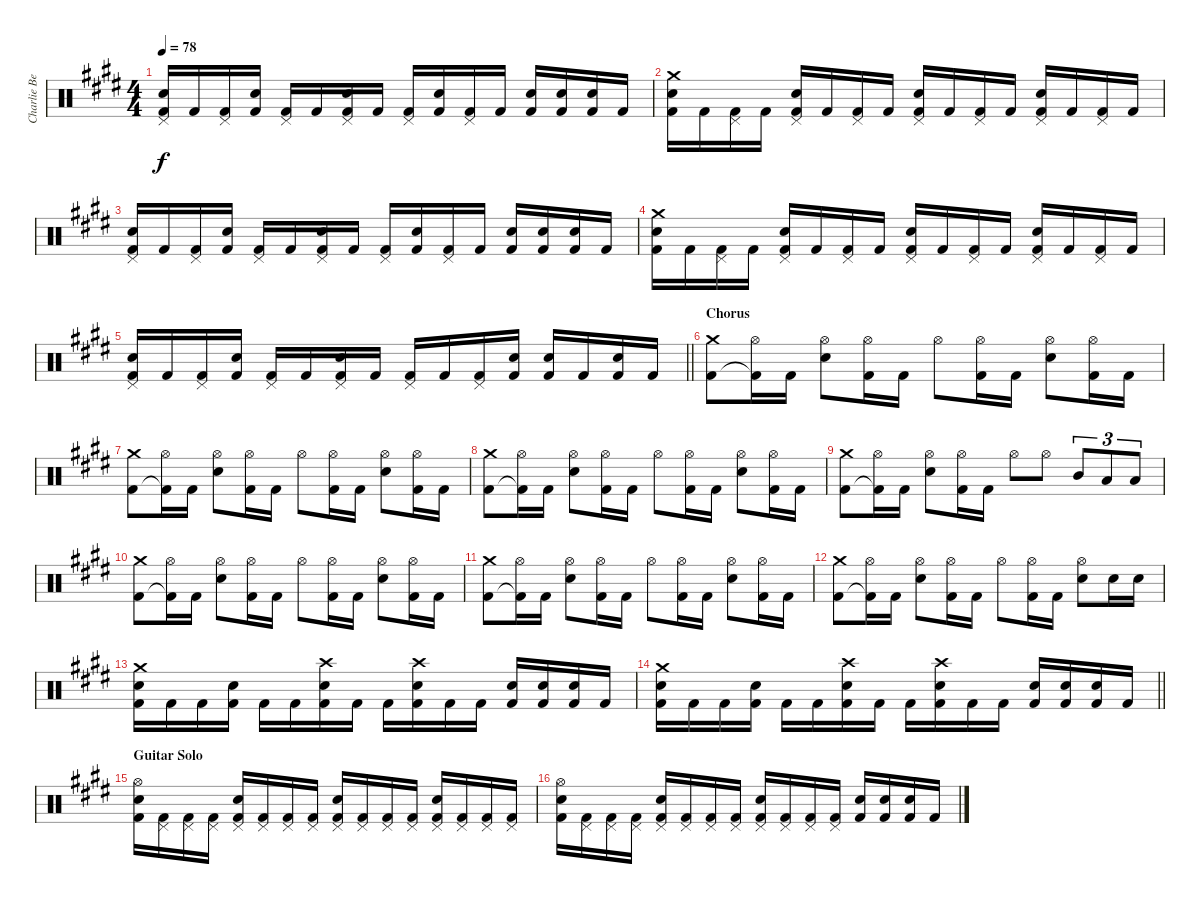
\track ("Charlie Benate " "Charlie Be") {instrument percussion}
\staff {score}
\articulation defaults
\ts (4 4)
\tempo 78
\clef neutral
\ks e
("Pedal Hi-Hat (hit)" "Snare (hit) 2" "Kick (hit) 2").16{dy f} "Kick (hit) 2".16 ("Pedal Hi-Hat (hit)" "Kick (hit) 2").16 ("Snare (hit) 2" "Kick (hit) 2").16 ("Pedal Hi-Hat (hit)" "Kick (hit) 2").16 "Kick (hit) 2".16 ("Pedal Hi-Hat (hit)" "Snare (hit) 2" "Kick (hit) 2").16 "Kick (hit) 2".16 ("Pedal Hi-Hat (hit)" "Kick (hit) 2").16 ("Snare (hit) 2" "Kick (hit) 2").16 ("Pedal Hi-Hat (hit)" "Kick (hit) 2").16 "Kick (hit) 2".16 ("Snare (hit) 2" "Kick (hit) 2").16 ("Snare (hit) 2" "Kick (hit) 2").16 ("Snare (hit) 2" "Kick (hit) 2").16 "Kick (hit) 2".16 |
("Crash medium (hit)" "Snare (hit) 2" "Kick (hit) 2").16 "Kick (hit) 2".16 ("Pedal Hi-Hat (hit)" "Kick (hit) 2").16 "Kick (hit) 2".16 ("Pedal Hi-Hat (hit)" "Snare (hit) 2" "Kick (hit) 2").16 "Kick (hit) 2".16 ("Pedal Hi-Hat (hit)" "Kick (hit) 2").16 "Kick (hit) 2".16 ("Pedal Hi-Hat (hit)" "Snare (hit) 2" "Kick (hit) 2").16 "Kick (hit) 2".16 ("Pedal Hi-Hat (hit)" "Kick (hit) 2").16 "Kick (hit) 2".16 ("Pedal Hi-Hat (hit)" "Snare (hit) 2" "Kick (hit) 2").16 "Kick (hit) 2".16 ("Pedal Hi-Hat (hit)" "Kick (hit) 2").16 "Kick (hit) 2".16 |
("Pedal Hi-Hat (hit)" "Snare (hit) 2" "Kick (hit) 2").16 "Kick (hit) 2".16 ("Pedal Hi-Hat (hit)" "Kick (hit) 2").16 ("Snare (hit) 2" "Kick (hit) 2").16 ("Pedal Hi-Hat (hit)" "Kick (hit) 2").16 "Kick (hit) 2".16 ("Pedal Hi-Hat (hit)" "Snare (hit) 2" "Kick (hit) 2").16 "Kick (hit) 2".16 ("Pedal Hi-Hat (hit)" "Kick (hit) 2").16 ("Snare (hit) 2" "Kick (hit) 2").16 ("Pedal Hi-Hat (hit)" "Kick (hit) 2").16 "Kick (hit) 2".16 ("Snare (hit) 2" "Kick (hit) 2").16 ("Snare (hit) 2" "Kick (hit) 2").16 ("Snare (hit) 2" "Kick (hit) 2").16 "Kick (hit) 2".16 |
("Crash medium (hit)" "Snare (hit) 2" "Kick (hit) 2").16 "Kick (hit) 2".16 ("Pedal Hi-Hat (hit)" "Kick (hit) 2").16 "Kick (hit) 2".16 ("Pedal Hi-Hat (hit)" "Snare (hit) 2" "Kick (hit) 2").16 "Kick (hit) 2".16 ("Pedal Hi-Hat (hit)" "Kick (hit) 2").16 "Kick (hit) 2".16 ("Pedal Hi-Hat (hit)" "Snare (hit) 2" "Kick (hit) 2").16 "Kick (hit) 2".16 ("Pedal Hi-Hat (hit)" "Kick (hit) 2").16 "Kick (hit) 2".16 ("Pedal Hi-Hat (hit)" "Snare (hit) 2" "Kick (hit) 2").16 "Kick (hit) 2".16 ("Pedal Hi-Hat (hit)" "Kick (hit) 2").16 "Kick (hit) 2".16 |
\barLineRight lightlight
("Pedal Hi-Hat (hit)" "Snare (hit) 2" "Kick (hit) 2").16 "Kick (hit) 2".16 ("Pedal Hi-Hat (hit)" "Kick (hit) 2").16 ("Snare (hit) 2" "Kick (hit) 2").16 ("Pedal Hi-Hat (hit)" "Kick (hit) 2").16 "Kick (hit) 2".16 ("Pedal Hi-Hat (hit)" "Snare (hit) 2" "Kick (hit) 2").16 "Kick (hit) 2".16 ("Pedal Hi-Hat (hit)" "Kick (hit) 2").16 "Kick (hit) 2".16 ("Pedal Hi-Hat (hit)" "Kick (hit) 2").16 ("Snare (hit) 2" "Kick (hit) 2").16 ("Snare (hit) 2" "Kick (hit) 2").16 "Kick (hit) 2".16 ("Snare (hit) 2" "Kick (hit) 2").16 "Kick (hit) 2".16 |
\section ("" "Chorus")
("Crash medium (hit)" "Kick (hit) 2").8 ("Hi-Hat (open)" "Kick (hit) 2"{t}).16 "Kick (hit) 2".16 ("Hi-Hat (open)" "Snare (hit) 2").8 ("Hi-Hat (open)" "Kick (hit) 2").16 "Kick (hit) 2".16 "Hi-Hat (open)".8 ("Hi-Hat (open)" "Kick (hit) 2").16 "Kick (hit) 2".16 ("Hi-Hat (open)" "Snare (hit) 2").8 ("Hi-Hat (open)" "Kick (hit) 2").16 "Kick (hit) 2".16 |
("Crash medium (hit)" "Kick (hit) 2").8 ("Hi-Hat (open)" "Kick (hit) 2"{t}).16 "Kick (hit) 2".16 ("Hi-Hat (open)" "Snare (hit) 2").8 ("Hi-Hat (open)" "Kick (hit) 2").16 "Kick (hit) 2".16 "Hi-Hat (open)".8 ("Hi-Hat (open)" "Kick (hit) 2").16 "Kick (hit) 2".16 ("Hi-Hat (open)" "Snare (hit) 2").8 ("Hi-Hat (open)" "Kick (hit) 2").16 "Kick (hit) 2".16 |
("Crash medium (hit)" "Kick (hit) 2").8 ("Hi-Hat (open)" "Kick (hit) 2"{t}).16 "Kick (hit) 2".16 ("Hi-Hat (open)" "Snare (hit) 2").8 ("Hi-Hat (open)" "Kick (hit) 2").16 "Kick (hit) 2".16 "Hi-Hat (open)".8 ("Hi-Hat (open)" "Kick (hit) 2").16 "Kick (hit) 2".16 ("Hi-Hat (open)" "Snare (hit) 2").8 ("Hi-Hat (open)" "Kick (hit) 2").16 "Kick (hit) 2".16 |
("Crash medium (hit)" "Kick (hit) 2").8 ("Hi-Hat (open)" "Kick (hit) 2"{t}).16 "Kick (hit) 2".16 ("Hi-Hat (open)" "Snare (hit) 2").8 ("Hi-Hat (open)" "Kick (hit) 2").16 "Kick (hit) 2".16 "Hi-Hat (open)".8 "Hi-Hat (open)".8 "Mid Tom (hit)".8{tu (3 2)} "Low Tom (hit)".8{tu (3 2)} "Low Tom (hit)".8{tu (3 2)} |
("Crash medium (hit)" "Kick (hit) 2").8 ("Hi-Hat (open)" "Kick (hit) 2"{t}).16 "Kick (hit) 2".16 ("Hi-Hat (open)" "Snare (hit) 2").8 ("Hi-Hat (open)" "Kick (hit) 2").16 "Kick (hit) 2".16 "Hi-Hat (open)".8 ("Hi-Hat (open)" "Kick (hit) 2").16 "Kick (hit) 2".16 ("Hi-Hat (open)" "Snare (hit) 2").8 ("Hi-Hat (open)" "Kick (hit) 2").16 "Kick (hit) 2".16 |
("Crash medium (hit)" "Kick (hit) 2").8 ("Hi-Hat (open)" "Kick (hit) 2"{t}).16 "Kick (hit) 2".16 ("Hi-Hat (open)" "Snare (hit) 2").8 ("Hi-Hat (open)" "Kick (hit) 2").16 "Kick (hit) 2".16 "Hi-Hat (open)".8 ("Hi-Hat (open)" "Kick (hit) 2").16 "Kick (hit) 2".16 ("Hi-Hat (open)" "Snare (hit) 2").8 ("Hi-Hat (open)" "Kick (hit) 2").16 "Kick (hit) 2".16 |
("Crash medium (hit)" "Kick (hit) 2").8 ("Hi-Hat (open)" "Kick (hit) 2"{t}).16 "Kick (hit) 2".16 ("Hi-Hat (open)" "Snare (hit) 2").8 ("Hi-Hat (open)" "Kick (hit) 2").16 "Kick (hit) 2".16 "Hi-Hat (open)".8 ("Hi-Hat (open)" "Kick (hit) 2").16 "Kick (hit) 2".16 ("Hi-Hat (open)" "Snare (hit) 2").8 "Snare (hit) 2".16 "Snare (hit) 2".16 |
("Crash medium (hit)" "Snare (hit) 2" "Kick (hit) 2").16 "Kick (hit) 2".16 "Kick (hit) 2".16 ("Snare (hit) 2" "Kick (hit) 2").16 "Kick (hit) 2".16 "Kick (hit) 2".16 ("Crash high (hit)" "Snare (hit) 2" "Kick (hit) 2").16 "Kick (hit) 2".16 "Kick (hit) 2".16 ("Crash high (hit)" "Snare (hit) 2" "Kick (hit) 2").16 "Kick (hit) 2".16 "Kick (hit) 2".16 ("Snare (hit) 2" "Kick (hit) 2").16 ("Snare (hit) 2" "Kick (hit) 2").16 ("Snare (hit) 2" "Kick (hit) 2").16 "Kick (hit) 2".16 |
\barLineRight lightlight
("Crash medium (hit)" "Snare (hit) 2" "Kick (hit) 2").16 "Kick (hit) 2".16 "Kick (hit) 2".16 ("Snare (hit) 2" "Kick (hit) 2").16 "Kick (hit) 2".16 "Kick (hit) 2".16 ("Crash high (hit)" "Snare (hit) 2" "Kick (hit) 2").16 "Kick (hit) 2".16 "Kick (hit) 2".16 ("Crash high (hit)" "Snare (hit) 2" "Kick (hit) 2").16 "Kick (hit) 2".16 "Kick (hit) 2".16 ("Snare (hit) 2" "Kick (hit) 2").16 ("Snare (hit) 2" "Kick (hit) 2").16 ("Snare (hit) 2" "Kick (hit) 2").16 "Kick (hit) 2".16 |
\section ("" "Guitar Solo")
("Hi-Hat (open)" "Snare (hit) 2" "Kick (hit) 2").16 ("Pedal Hi-Hat (hit)" "Kick (hit) 2").16 ("Pedal Hi-Hat (hit)" "Kick (hit) 2").16 ("Pedal Hi-Hat (hit)" "Kick (hit) 2").16 ("Pedal Hi-Hat (hit)" "Snare (hit) 2" "Kick (hit) 2").16 ("Pedal Hi-Hat (hit)" "Kick (hit) 2").16 ("Pedal Hi-Hat (hit)" "Kick (hit) 2").16 ("Pedal Hi-Hat (hit)" "Kick (hit) 2").16 ("Pedal Hi-Hat (hit)" "Snare (hit) 2" "Kick (hit) 2").16 ("Pedal Hi-Hat (hit)" "Kick (hit) 2").16 ("Pedal Hi-Hat (hit)" "Kick (hit) 2").16 ("Pedal Hi-Hat (hit)" "Kick (hit) 2").16 ("Pedal Hi-Hat (hit)" "Snare (hit) 2" "Kick (hit) 2").16 ("Pedal Hi-Hat (hit)" "Kick (hit) 2").16 ("Pedal Hi-Hat (hit)" "Kick (hit) 2").16 ("Pedal Hi-Hat (hit)" "Kick (hit) 2").16 |
("Hi-Hat (open)" "Snare (hit) 2" "Kick (hit) 2").16 ("Pedal Hi-Hat (hit)" "Kick (hit) 2").16 ("Pedal Hi-Hat (hit)" "Kick (hit) 2").16 ("Pedal Hi-Hat (hit)" "Kick (hit) 2").16 ("Pedal Hi-Hat (hit)" "Snare (hit) 2" "Kick (hit) 2").16 ("Pedal Hi-Hat (hit)" "Kick (hit) 2").16 ("Pedal Hi-Hat (hit)" "Kick (hit) 2").16 ("Pedal Hi-Hat (hit)" "Kick (hit) 2").16 ("Pedal Hi-Hat (hit)" "Snare (hit) 2" "Kick (hit) 2").16 ("Pedal Hi-Hat (hit)" "Kick (hit) 2").16 ("Pedal Hi-Hat (hit)" "Kick (hit) 2").16 ("Pedal Hi-Hat (hit)" "Kick (hit) 2").16 ("Snare (hit) 2" "Kick (hit) 2").16 ("Snare (hit) 2" "Kick (hit) 2").16 ("Snare (hit) 2" "Kick (hit) 2").16 "Kick (hit) 2".16
